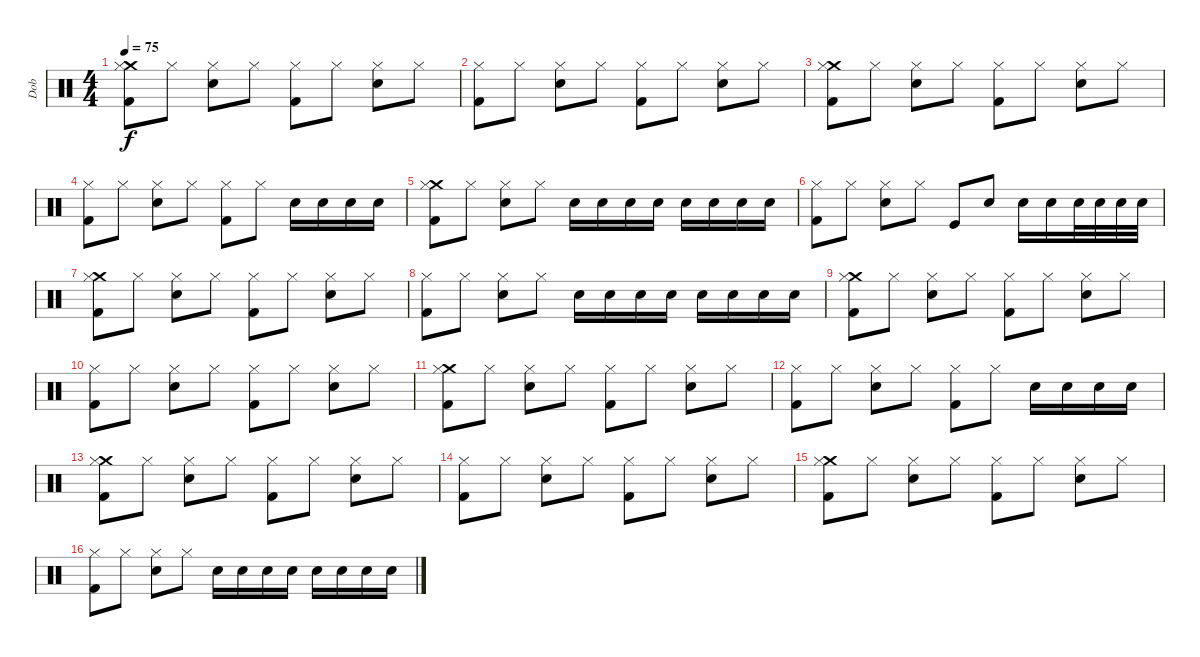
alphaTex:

\track ("Dob" "Dob") {instrument percussion}
\staff {score}
\articulation defaults
\ts (4 4)
\tempo 75
\clef neutral
\ks c
("Crash medium (hit)" "Kick (hit) 2" "Hi-Hat (closed)").8{dy f} "Hi-Hat (closed)".8 ("Snare (hit) 2" "Hi-Hat (closed)").8 "Hi-Hat (closed)".8 ("Kick (hit) 2" "Hi-Hat (closed)").8 "Hi-Hat (closed)".8 ("Snare (hit) 2" "Hi-Hat (closed)").8 "Hi-Hat (closed)".8 |
("Kick (hit) 2" "Hi-Hat (closed)").8 "Hi-Hat (closed)".8 ("Snare (hit) 2" "Hi-Hat (closed)").8 "Hi-Hat (closed)".8 ("Kick (hit) 2" "Hi-Hat (closed)").8 "Hi-Hat (closed)".8 ("Snare (hit) 2" "Hi-Hat (closed)").8 "Hi-Hat (closed)".8 |
("Crash medium (hit)" "Kick (hit) 2" "Hi-Hat (closed)").8 "Hi-Hat (closed)".8 ("Snare (hit) 2" "Hi-Hat (closed)").8 "Hi-Hat (closed)".8 ("Kick (hit) 2" "Hi-Hat (closed)").8 "Hi-Hat (closed)".8 ("Snare (hit) 2" "Hi-Hat (closed)").8 "Hi-Hat (closed)".8 |
("Kick (hit) 2" "Hi-Hat (closed)").8 "Hi-Hat (closed)".8 ("Snare (hit) 2" "Hi-Hat (closed)").8 "Hi-Hat (closed)".8 ("Kick (hit) 2" "Hi-Hat (closed)").8 "Hi-Hat (closed)".8 "Snare (hit) 2".16 "Snare (hit) 2".16 "Snare (hit) 2".16 "Snare (hit) 2".16 |
("Crash medium (hit)" "Kick (hit) 2" "Hi-Hat (closed)").8 "Hi-Hat (closed)".8 ("Snare (hit) 2" "Hi-Hat (closed)").8 "Hi-Hat (closed)".8 "Snare (hit) 2".16 "Snare (hit) 2".16 "Snare (hit) 2".16 "Snare (hit) 2".16 "Snare (hit) 2".16 "Snare (hit) 2".16 "Snare (hit) 2".16 "Snare (hit) 2".16 |
("Kick (hit) 2" "Hi-Hat (closed)").8 "Hi-Hat (closed)".8 ("Snare (hit) 2" "Hi-Hat (closed)").8 "Hi-Hat (closed)".8 "Kick (hit)".8 "Snare (hit) 2".8 "Snare (hit) 2".16 "Snare (hit) 2".16 "Snare (hit) 2".32 "Snare (hit) 2".32 "Snare (hit) 2".32 "Snare (hit) 2".32 |
("Crash medium (hit)" "Kick (hit) 2" "Hi-Hat (closed)").8 "Hi-Hat (closed)".8 ("Snare (hit) 2" "Hi-Hat (closed)").8 "Hi-Hat (closed)".8 ("Kick (hit) 2" "Hi-Hat (closed)").8 "Hi-Hat (closed)".8 ("Snare (hit) 2" "Hi-Hat (closed)").8 "Hi-Hat (closed)".8 |
("Kick (hit) 2" "Hi-Hat (closed)").8 "Hi-Hat (closed)".8 ("Snare (hit) 2" "Hi-Hat (closed)").8 "Hi-Hat (closed)".8 "Snare (hit) 2".16 "Snare (hit) 2".16 "Snare (hit) 2".16 "Snare (hit) 2".16 "Snare (hit) 2".16 "Snare (hit) 2".16 "Snare (hit) 2".16 "Snare (hit) 2".16 |
("Crash medium (hit)" "Kick (hit) 2" "Hi-Hat (closed)").8 "Hi-Hat (closed)".8 ("Snare (hit) 2" "Hi-Hat (closed)").8 "Hi-Hat (closed)".8 ("Kick (hit) 2" "Hi-Hat (closed)").8 "Hi-Hat (closed)".8 ("Snare (hit) 2" "Hi-Hat (closed)").8 "Hi-Hat (closed)".8 |
("Kick (hit) 2" "Hi-Hat (closed)").8 "Hi-Hat (closed)".8 ("Snare (hit) 2" "Hi-Hat (closed)").8 "Hi-Hat (closed)".8 ("Kick (hit) 2" "Hi-Hat (closed)").8 "Hi-Hat (closed)".8 ("Snare (hit) 2" "Hi-Hat (closed)").8 "Hi-Hat (closed)".8 |
("Crash medium (hit)" "Kick (hit) 2" "Hi-Hat (closed)").8 "Hi-Hat (closed)".8 ("Snare (hit) 2" "Hi-Hat (closed)").8 "Hi-Hat (closed)".8 ("Kick (hit) 2" "Hi-Hat (closed)").8 "Hi-Hat (closed)".8 ("Snare (hit) 2" "Hi-Hat (closed)").8 "Hi-Hat (closed)".8 |
("Kick (hit) 2" "Hi-Hat (closed)").8 "Hi-Hat (closed)".8 ("Snare (hit) 2" "Hi-Hat (closed)").8 "Hi-Hat (closed)".8 ("Kick (hit) 2" "Hi-Hat (closed)").8 "Hi-Hat (closed)".8 "Snare (hit) 2".16 "Snare (hit) 2".16 "Snare (hit) 2".16 "Snare (hit) 2".16 |
("Crash medium (hit)" "Kick (hit) 2" "Hi-Hat (closed)").8 "Hi-Hat (closed)".8 ("Snare (hit) 2" "Hi-Hat (closed)").8 "Hi-Hat (closed)".8 ("Kick (hit) 2" "Hi-Hat (closed)").8 "Hi-Hat (closed)".8 ("Snare (hit) 2" "Hi-Hat (closed)").8 "Hi-Hat (closed)".8 |
("Kick (hit) 2" "Hi-Hat (closed)").8 "Hi-Hat (closed)".8 ("Snare (hit) 2" "Hi-Hat (closed)").8 "Hi-Hat (closed)".8 ("Kick (hit) 2" "Hi-Hat (closed)").8 "Hi-Hat (closed)".8 ("Snare (hit) 2" "Hi-Hat (closed)").8 "Hi-Hat (closed)".8 |
("Crash medium (hit)" "Kick (hit) 2" "Hi-Hat (closed)").8 "Hi-Hat (closed)".8 ("Snare (hit) 2" "Hi-Hat (closed)").8 "Hi-Hat (closed)".8 ("Kick (hit) 2" "Hi-Hat (closed)").8 "Hi-Hat (closed)".8 ("Snare (hit) 2" "Hi-Hat (closed)").8 "Hi-Hat (closed)".8 |
("Kick (hit) 2" "Hi-Hat (closed)").8 "Hi-Hat (closed)".8 ("Snare (hit) 2" "Hi-Hat (closed)").8 "Hi-Hat (closed)".8 "Snare (hit) 2".16 "Snare (hit) 2".16 "Snare (hit) 2".16 "Snare (hit) 2".16 "Snare (hit) 2".16 "Snare (hit) 2".16 "Snare (hit) 2".16 "Snare (hit) 2".16
